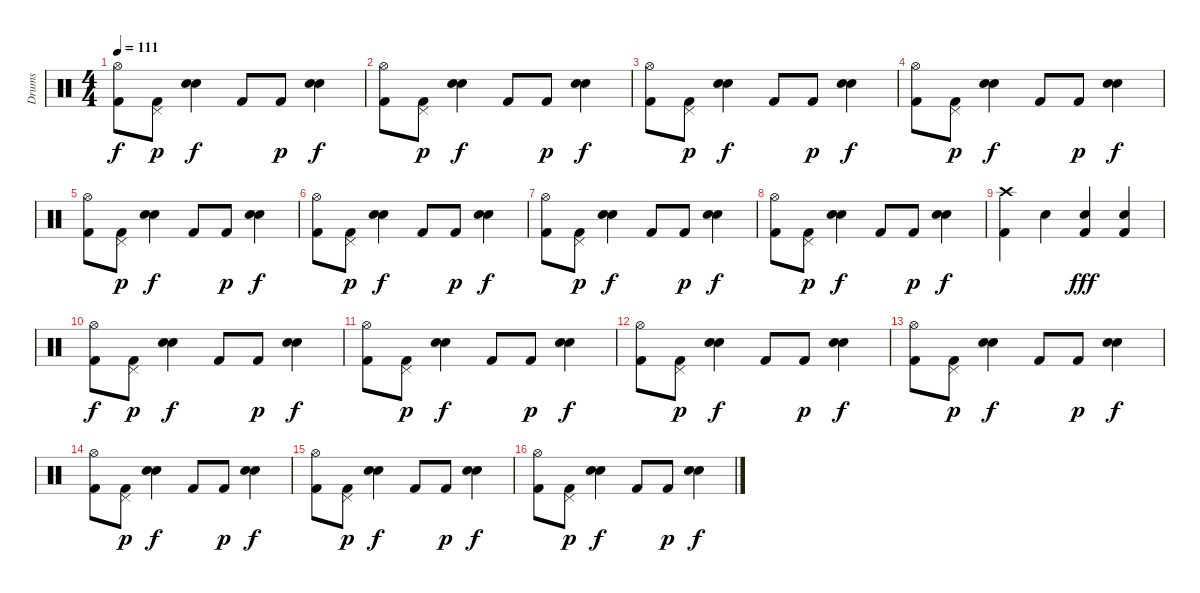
\track ("Drums" "Drums") {instrument percussion}
\staff {score}
\articulation defaults
\ts (4 4)
\tempo 111
\clef neutral
\ks c
("Hi-Hat (open)" "Kick (hit) 2").8{dy f} ("Kick (hit) 2" "Pedal Hi-Hat (hit)").8{dy p} ("Snare (hit) 2" "Snare (hit) 2").4{dy f} "Kick (hit) 2".8 "Kick (hit) 2".8{dy p} ("Snare (hit) 2" "Snare (hit) 2").4{dy f} |
("Hi-Hat (open)" "Kick (hit) 2").8 ("Kick (hit) 2" "Pedal Hi-Hat (hit)").8{dy p} ("Snare (hit) 2" "Snare (hit) 2").4{dy f} "Kick (hit) 2".8 "Kick (hit) 2".8{dy p} ("Snare (hit) 2" "Snare (hit) 2").4{dy f} |
("Hi-Hat (open)" "Kick (hit) 2").8 ("Kick (hit) 2" "Pedal Hi-Hat (hit)").8{dy p} ("Snare (hit) 2" "Snare (hit) 2").4{dy f} "Kick (hit) 2".8 "Kick (hit) 2".8{dy p} ("Snare (hit) 2" "Snare (hit) 2").4{dy f} |
("Hi-Hat (open)" "Kick (hit) 2").8 ("Kick (hit) 2" "Pedal Hi-Hat (hit)").8{dy p} ("Snare (hit) 2" "Snare (hit) 2").4{dy f} "Kick (hit) 2".8 "Kick (hit) 2".8{dy p} ("Snare (hit) 2" "Snare (hit) 2").4{dy f} |
("Hi-Hat (open)" "Kick (hit) 2").8 ("Kick (hit) 2" "Pedal Hi-Hat (hit)").8{dy p} ("Snare (hit) 2" "Snare (hit) 2").4{dy f} "Kick (hit) 2".8 "Kick (hit) 2".8{dy p} ("Snare (hit) 2" "Snare (hit) 2").4{dy f} |
("Hi-Hat (open)" "Kick (hit) 2").8 ("Kick (hit) 2" "Pedal Hi-Hat (hit)").8{dy p} ("Snare (hit) 2" "Snare (hit) 2").4{dy f} "Kick (hit) 2".8 "Kick (hit) 2".8{dy p} ("Snare (hit) 2" "Snare (hit) 2").4{dy f} |
("Hi-Hat (open)" "Kick (hit) 2").8 ("Kick (hit) 2" "Pedal Hi-Hat (hit)").8{dy p} ("Snare (hit) 2" "Snare (hit) 2").4{dy f} "Kick (hit) 2".8 "Kick (hit) 2".8{dy p} ("Snare (hit) 2" "Snare (hit) 2").4{dy f} |
("Hi-Hat (open)" "Kick (hit) 2").8 ("Kick (hit) 2" "Pedal Hi-Hat (hit)").8{dy p} ("Snare (hit) 2" "Snare (hit) 2").4{dy f} "Kick (hit) 2".8 "Kick (hit) 2".8{dy p} ("Snare (hit) 2" "Snare (hit) 2").4{dy f} |
("Crash high (hit)" "Kick (hit) 2").4 "Snare (hit) 2".4 ("Snare (hit) 2" "Kick (hit) 2").4{dy fff} ("Snare (hit) 2" "Kick (hit) 2").4 |
("Hi-Hat (open)" "Kick (hit) 2").8{dy f} ("Kick (hit) 2" "Pedal Hi-Hat (hit)").8{dy p} ("Snare (hit) 2" "Snare (hit) 2").4{dy f} "Kick (hit) 2".8 "Kick (hit) 2".8{dy p} ("Snare (hit) 2" "Snare (hit) 2").4{dy f} |
("Hi-Hat (open)" "Kick (hit) 2").8 ("Kick (hit) 2" "Pedal Hi-Hat (hit)").8{dy p} ("Snare (hit) 2" "Snare (hit) 2").4{dy f} "Kick (hit) 2".8 "Kick (hit) 2".8{dy p} ("Snare (hit) 2" "Snare (hit) 2").4{dy f} |
("Hi-Hat (open)" "Kick (hit) 2").8 ("Kick (hit) 2" "Pedal Hi-Hat (hit)").8{dy p} ("Snare (hit) 2" "Snare (hit) 2").4{dy f} "Kick (hit) 2".8 "Kick (hit) 2".8{dy p} ("Snare (hit) 2" "Snare (hit) 2").4{dy f} |
("Hi-Hat (open)" "Kick (hit) 2").8 ("Kick (hit) 2" "Pedal Hi-Hat (hit)").8{dy p} ("Snare (hit) 2" "Snare (hit) 2").4{dy f} "Kick (hit) 2".8 "Kick (hit) 2".8{dy p} ("Snare (hit) 2" "Snare (hit) 2").4{dy f} |
("Hi-Hat (open)" "Kick (hit) 2").8 ("Kick (hit) 2" "Pedal Hi-Hat (hit)").8{dy p} ("Snare (hit) 2" "Snare (hit) 2").4{dy f} "Kick (hit) 2".8 "Kick (hit) 2".8{dy p} ("Snare (hit) 2" "Snare (hit) 2").4{dy f} |
("Hi-Hat (open)" "Kick (hit) 2").8 ("Kick (hit) 2" "Pedal Hi-Hat (hit)").8{dy p} ("Snare (hit) 2" "Snare (hit) 2").4{dy f} "Kick (hit) 2".8 "Kick (hit) 2".8{dy p} ("Snare (hit) 2" "Snare (hit) 2").4{dy f} |
("Hi-Hat (open)" "Kick (hit) 2").8 ("Kick (hit) 2" "Pedal Hi-Hat (hit)").8{dy p} ("Snare (hit) 2" "Snare (hit) 2").4{dy f} "Kick (hit) 2".8 "Kick (hit) 2".8{dy p} ("Snare (hit) 2" "Snare (hit) 2").4{dy f}
